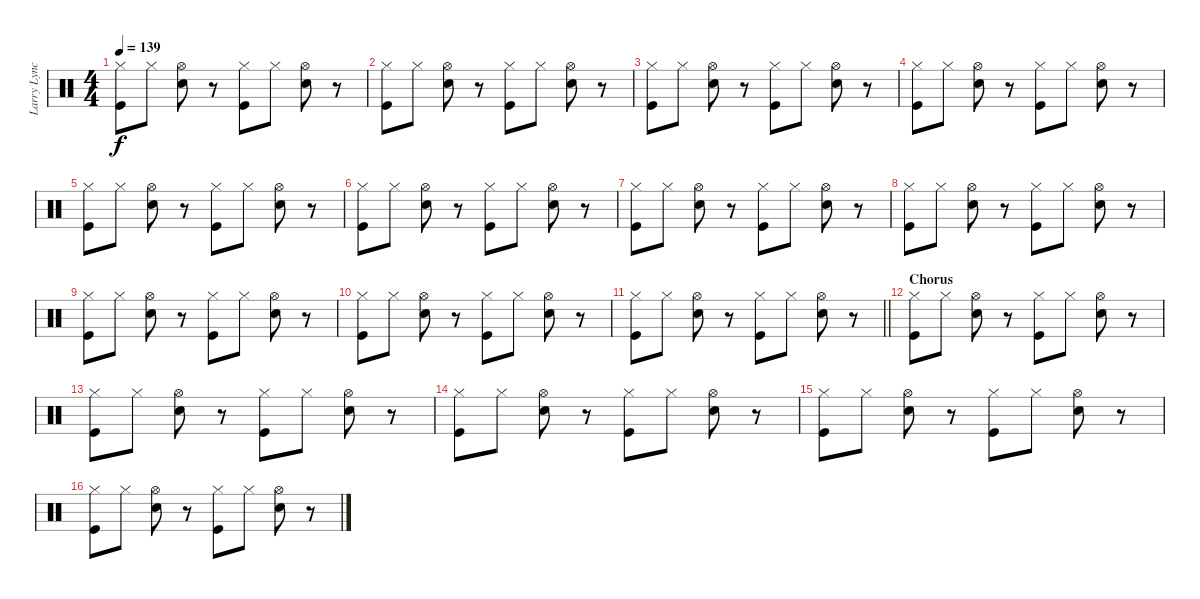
\track ("Larry Lynch" "Larry Lync") {instrument percussion}
\staff {score}
\articulation defaults
\ts (4 4)
\tempo 139
\clef neutral
\ks c
("Hi-Hat (closed)" "Kick (hit)").8{dy f} "Hi-Hat (closed)".8 ("Hi-Hat (open)" "Electric Snare (hit)").8 r.8 ("Hi-Hat (closed)" "Kick (hit)").8 "Hi-Hat (closed)".8 ("Hi-Hat (open)" "Electric Snare (hit)").8 r.8 |
("Hi-Hat (closed)" "Kick (hit)").8 "Hi-Hat (closed)".8 ("Hi-Hat (open)" "Electric Snare (hit)").8 r.8 ("Hi-Hat (closed)" "Kick (hit)").8 "Hi-Hat (closed)".8 ("Hi-Hat (open)" "Electric Snare (hit)").8 r.8 |
("Hi-Hat (closed)" "Kick (hit)").8 "Hi-Hat (closed)".8 ("Hi-Hat (open)" "Electric Snare (hit)").8 r.8 ("Hi-Hat (closed)" "Kick (hit)").8 "Hi-Hat (closed)".8 ("Hi-Hat (open)" "Electric Snare (hit)").8 r.8 |
("Hi-Hat (closed)" "Kick (hit)").8 "Hi-Hat (closed)".8 ("Hi-Hat (open)" "Electric Snare (hit)").8 r.8 ("Hi-Hat (closed)" "Kick (hit)").8 "Hi-Hat (closed)".8 ("Hi-Hat (open)" "Electric Snare (hit)").8 r.8 |
("Hi-Hat (closed)" "Kick (hit)").8 "Hi-Hat (closed)".8 ("Hi-Hat (open)" "Electric Snare (hit)").8 r.8 ("Hi-Hat (closed)" "Kick (hit)").8 "Hi-Hat (closed)".8 ("Hi-Hat (open)" "Electric Snare (hit)").8 r.8 |
("Hi-Hat (closed)" "Kick (hit)").8 "Hi-Hat (closed)".8 ("Hi-Hat (open)" "Electric Snare (hit)").8 r.8 ("Hi-Hat (closed)" "Kick (hit)").8 "Hi-Hat (closed)".8 ("Hi-Hat (open)" "Electric Snare (hit)").8 r.8 |
("Hi-Hat (closed)" "Kick (hit)").8 "Hi-Hat (closed)".8 ("Hi-Hat (open)" "Electric Snare (hit)").8 r.8 ("Hi-Hat (closed)" "Kick (hit)").8 "Hi-Hat (closed)".8 ("Hi-Hat (open)" "Electric Snare (hit)").8 r.8 |
("Hi-Hat (closed)" "Kick (hit)").8 "Hi-Hat (closed)".8 ("Hi-Hat (open)" "Electric Snare (hit)").8 r.8 ("Hi-Hat (closed)" "Kick (hit)").8 "Hi-Hat (closed)".8 ("Hi-Hat (open)" "Electric Snare (hit)").8 r.8 |
("Hi-Hat (closed)" "Kick (hit)").8 "Hi-Hat (closed)".8 ("Hi-Hat (open)" "Electric Snare (hit)").8 r.8 ("Hi-Hat (closed)" "Kick (hit)").8 "Hi-Hat (closed)".8 ("Hi-Hat (open)" "Electric Snare (hit)").8 r.8 |
("Hi-Hat (closed)" "Kick (hit)").8 "Hi-Hat (closed)".8 ("Hi-Hat (open)" "Electric Snare (hit)").8 r.8 ("Hi-Hat (closed)" "Kick (hit)").8 "Hi-Hat (closed)".8 ("Hi-Hat (open)" "Electric Snare (hit)").8 r.8 |
\barLineRight lightlight
("Hi-Hat (closed)" "Kick (hit)").8 "Hi-Hat (closed)".8 ("Hi-Hat (open)" "Electric Snare (hit)").8 r.8 ("Hi-Hat (closed)" "Kick (hit)").8 "Hi-Hat (closed)".8 ("Hi-Hat (open)" "Electric Snare (hit)").8 r.8 |
\section ("" "Chorus")
("Hi-Hat (closed)" "Kick (hit)").8 "Hi-Hat (closed)".8 ("Hi-Hat (open)" "Electric Snare (hit)").8 r.8 ("Hi-Hat (closed)" "Kick (hit)").8 "Hi-Hat (closed)".8 ("Hi-Hat (open)" "Electric Snare (hit)").8 r.8 |
("Hi-Hat (closed)" "Kick (hit)").8 "Hi-Hat (closed)".8 ("Hi-Hat (open)" "Electric Snare (hit)").8 r.8 ("Hi-Hat (closed)" "Kick (hit)").8 "Hi-Hat (closed)".8 ("Hi-Hat (open)" "Electric Snare (hit)").8 r.8 |
("Hi-Hat (closed)" "Kick (hit)").8 "Hi-Hat (closed)".8 ("Hi-Hat (open)" "Electric Snare (hit)").8 r.8 ("Hi-Hat (closed)" "Kick (hit)").8 "Hi-Hat (closed)".8 ("Hi-Hat (open)" "Electric Snare (hit)").8 r.8 |
("Hi-Hat (closed)" "Kick (hit)").8 "Hi-Hat (closed)".8 ("Hi-Hat (open)" "Electric Snare (hit)").8 r.8 ("Hi-Hat (closed)" "Kick (hit)").8 "Hi-Hat (closed)".8 ("Hi-Hat (open)" "Electric Snare (hit)").8 r.8 |
("Hi-Hat (closed)" "Kick (hit)").8 "Hi-Hat (closed)".8 ("Hi-Hat (open)" "Electric Snare (hit)").8 r.8 ("Hi-Hat (closed)" "Kick (hit)").8 "Hi-Hat (closed)".8 ("Hi-Hat (open)" "Electric Snare (hit)").8 r.8
